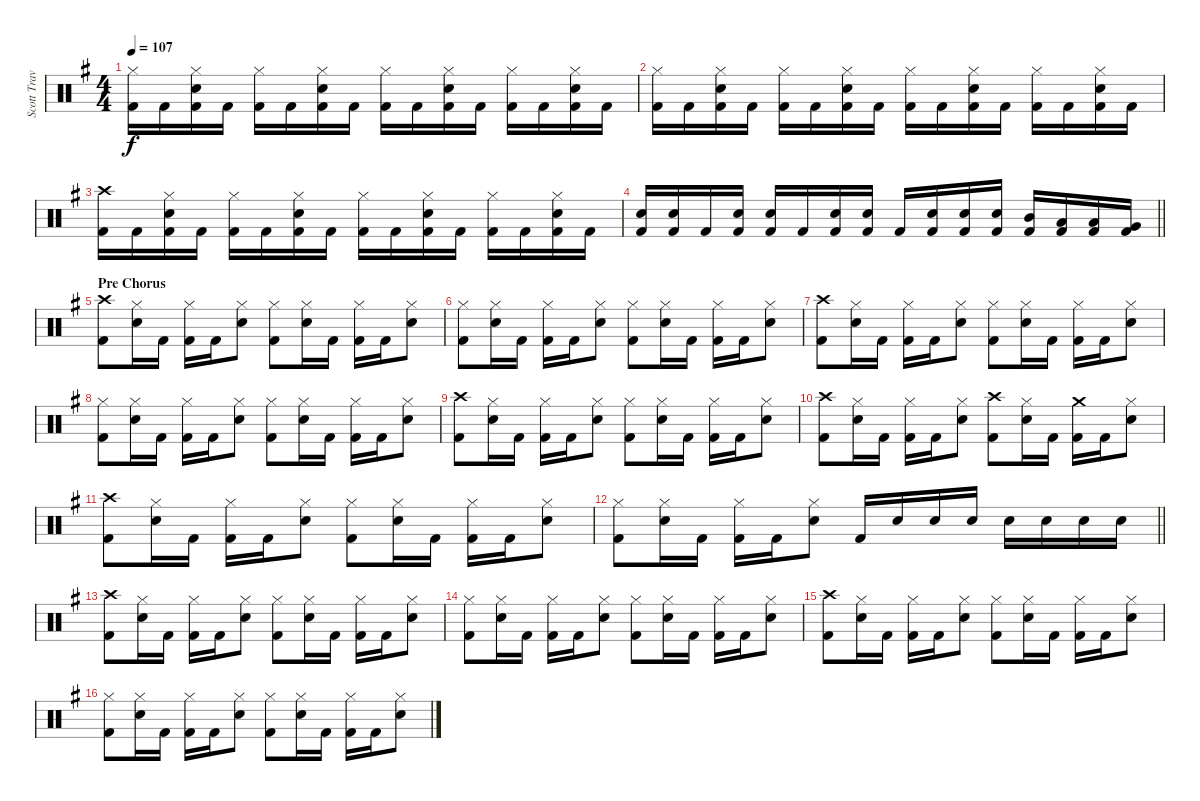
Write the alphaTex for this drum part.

\track ("Scott Travis" "Scott Trav") {instrument percussion}
\staff {score}
\articulation defaults
\ts (4 4)
\tempo 107
\clef neutral
\ks eminor
("Hi-Hat (closed)" "Kick (hit) 2").16{dy f} "Kick (hit) 2".16 ("Hi-Hat (closed)" "Snare (hit) 2" "Kick (hit) 2").16 "Kick (hit) 2".16 ("Hi-Hat (closed)" "Kick (hit) 2").16 "Kick (hit) 2".16 ("Hi-Hat (closed)" "Snare (hit) 2" "Kick (hit) 2").16 "Kick (hit) 2".16 ("Hi-Hat (closed)" "Kick (hit) 2").16 "Kick (hit) 2".16 ("Hi-Hat (closed)" "Snare (hit) 2" "Kick (hit) 2").16 "Kick (hit) 2".16 ("Hi-Hat (closed)" "Kick (hit) 2").16 "Kick (hit) 2".16 ("Hi-Hat (closed)" "Snare (hit) 2" "Kick (hit) 2").16 "Kick (hit) 2".16 |
("Hi-Hat (closed)" "Kick (hit) 2").16 "Kick (hit) 2".16 ("Hi-Hat (closed)" "Snare (hit) 2" "Kick (hit) 2").16 "Kick (hit) 2".16 ("Hi-Hat (closed)" "Kick (hit) 2").16 "Kick (hit) 2".16 ("Hi-Hat (closed)" "Snare (hit) 2" "Kick (hit) 2").16 "Kick (hit) 2".16 ("Hi-Hat (closed)" "Kick (hit) 2").16 "Kick (hit) 2".16 ("Hi-Hat (closed)" "Snare (hit) 2" "Kick (hit) 2").16 "Kick (hit) 2".16 ("Hi-Hat (closed)" "Kick (hit) 2").16 "Kick (hit) 2".16 ("Hi-Hat (closed)" "Snare (hit) 2" "Kick (hit) 2").16 "Kick (hit) 2".16 |
("Crash high (hit)" "Kick (hit) 2").16 "Kick (hit) 2".16 ("Hi-Hat (closed)" "Snare (hit) 2" "Kick (hit) 2").16 "Kick (hit) 2".16 ("Hi-Hat (closed)" "Kick (hit) 2").16 "Kick (hit) 2".16 ("Hi-Hat (closed)" "Snare (hit) 2" "Kick (hit) 2").16 "Kick (hit) 2".16 ("Hi-Hat (closed)" "Kick (hit) 2").16 "Kick (hit) 2".16 ("Hi-Hat (closed)" "Snare (hit) 2" "Kick (hit) 2").16 "Kick (hit) 2".16 ("Hi-Hat (closed)" "Kick (hit) 2").16 "Kick (hit) 2".16 ("Hi-Hat (closed)" "Snare (hit) 2" "Kick (hit) 2").16 "Kick (hit) 2".16 |
\barLineRight lightlight
("Snare (hit) 2" "Kick (hit) 2").16 ("Snare (hit) 2" "Kick (hit) 2").16 "Kick (hit) 2".16 ("Snare (hit) 2" "Kick (hit) 2").16 ("Snare (hit) 2" "Kick (hit) 2").16 "Kick (hit) 2".16 ("Snare (hit) 2" "Kick (hit) 2").16 ("Snare (hit) 2" "Kick (hit) 2").16 "Kick (hit) 2".16 ("Snare (hit) 2" "Kick (hit) 2").16 ("Snare (hit) 2" "Kick (hit) 2").16 ("Snare (hit) 2" "Kick (hit) 2").16 ("Mid Tom (hit)" "Kick (hit) 2").16 ("Low Tom (hit)" "Kick (hit) 2").16 ("Low Tom (hit)" "Kick (hit) 2").16 ("Very Low Tom (hit)" "Kick (hit) 2").16 |
\section ("" "Pre Chorus")
("Crash high (hit)" "Kick (hit) 2").8 ("Hi-Hat (closed)" "Snare (hit) 2").16 "Kick (hit) 2".16 ("Hi-Hat (closed)" "Kick (hit) 2").16 "Kick (hit) 2".16 ("Hi-Hat (closed)" "Snare (hit) 2").8 ("Hi-Hat (closed)" "Kick (hit) 2").8 ("Hi-Hat (closed)" "Snare (hit) 2").16 "Kick (hit) 2".16 ("Hi-Hat (closed)" "Kick (hit) 2").16 "Kick (hit) 2".16 ("Hi-Hat (closed)" "Snare (hit) 2").8 |
("Hi-Hat (closed)" "Kick (hit) 2").8 ("Hi-Hat (closed)" "Snare (hit) 2").16 "Kick (hit) 2".16 ("Hi-Hat (closed)" "Kick (hit) 2").16 "Kick (hit) 2".16 ("Hi-Hat (closed)" "Snare (hit) 2").8 ("Hi-Hat (closed)" "Kick (hit) 2").8 ("Hi-Hat (closed)" "Snare (hit) 2").16 "Kick (hit) 2".16 ("Hi-Hat (closed)" "Kick (hit) 2").16 "Kick (hit) 2".16 ("Hi-Hat (closed)" "Snare (hit) 2").8 |
("Crash high (hit)" "Kick (hit) 2").8 ("Hi-Hat (closed)" "Snare (hit) 2").16 "Kick (hit) 2".16 ("Hi-Hat (closed)" "Kick (hit) 2").16 "Kick (hit) 2".16 ("Hi-Hat (closed)" "Snare (hit) 2").8 ("Hi-Hat (closed)" "Kick (hit) 2").8 ("Hi-Hat (closed)" "Snare (hit) 2").16 "Kick (hit) 2".16 ("Hi-Hat (closed)" "Kick (hit) 2").16 "Kick (hit) 2".16 ("Hi-Hat (closed)" "Snare (hit) 2").8 |
("Hi-Hat (closed)" "Kick (hit) 2").8 ("Hi-Hat (closed)" "Snare (hit) 2").16 "Kick (hit) 2".16 ("Hi-Hat (closed)" "Kick (hit) 2").16 "Kick (hit) 2".16 ("Hi-Hat (closed)" "Snare (hit) 2").8 ("Hi-Hat (closed)" "Kick (hit) 2").8 ("Hi-Hat (closed)" "Snare (hit) 2").16 "Kick (hit) 2".16 ("Hi-Hat (closed)" "Kick (hit) 2").16 "Kick (hit) 2".16 ("Hi-Hat (closed)" "Snare (hit) 2").8 |
("Crash high (hit)" "Kick (hit) 2").8 ("Hi-Hat (closed)" "Snare (hit) 2").16 "Kick (hit) 2".16 ("Hi-Hat (closed)" "Kick (hit) 2").16 "Kick (hit) 2".16 ("Hi-Hat (closed)" "Snare (hit) 2").8 ("Hi-Hat (closed)" "Kick (hit) 2").8 ("Hi-Hat (closed)" "Snare (hit) 2").16 "Kick (hit) 2".16 ("Hi-Hat (closed)" "Kick (hit) 2").16 "Kick (hit) 2".16 ("Hi-Hat (closed)" "Snare (hit) 2").8 |
("Crash high (hit)" "Kick (hit) 2").8 ("Hi-Hat (closed)" "Snare (hit) 2").16 "Kick (hit) 2".16 ("Hi-Hat (closed)" "Kick (hit) 2").16 "Kick (hit) 2".16 ("Hi-Hat (closed)" "Snare (hit) 2").8 ("Crash high (hit)" "Kick (hit) 2").8 ("Hi-Hat (closed)" "Snare (hit) 2").16 "Kick (hit) 2".16 ("Crash medium (hit)" "Kick (hit) 2").16 "Kick (hit) 2".16 ("Hi-Hat (closed)" "Snare (hit) 2").8 |
("Crash high (hit)" "Kick (hit) 2").8 ("Hi-Hat (closed)" "Snare (hit) 2").16 "Kick (hit) 2".16 ("Hi-Hat (closed)" "Kick (hit) 2").16 "Kick (hit) 2".16 ("Hi-Hat (closed)" "Snare (hit) 2").8 ("Hi-Hat (closed)" "Kick (hit) 2").8 ("Hi-Hat (closed)" "Snare (hit) 2").16 "Kick (hit) 2".16 ("Hi-Hat (closed)" "Kick (hit) 2").16 "Kick (hit) 2".16 ("Hi-Hat (closed)" "Snare (hit) 2").8 |
\barLineRight lightlight
("Hi-Hat (closed)" "Kick (hit) 2").8 ("Hi-Hat (closed)" "Snare (hit) 2").16 "Kick (hit) 2".16 ("Hi-Hat (closed)" "Kick (hit) 2").16 "Kick (hit) 2".16 ("Hi-Hat (closed)" "Snare (hit) 2").8 "Kick (hit) 2".16 "Snare (hit) 2".16 "Snare (hit) 2".16 "Snare (hit) 2".16 "Snare (hit) 2".16 "Snare (hit) 2".16 "Snare (hit) 2".16 "Snare (hit) 2".16 |
("Crash high (hit)" "Kick (hit) 2").8 ("Hi-Hat (closed)" "Snare (hit) 2").16 "Kick (hit) 2".16 ("Hi-Hat (closed)" "Kick (hit) 2").16 "Kick (hit) 2".16 ("Hi-Hat (closed)" "Snare (hit) 2").8 ("Hi-Hat (closed)" "Kick (hit) 2").8 ("Hi-Hat (closed)" "Snare (hit) 2").16 "Kick (hit) 2".16 ("Hi-Hat (closed)" "Kick (hit) 2").16 "Kick (hit) 2".16 ("Hi-Hat (closed)" "Snare (hit) 2").8 |
("Hi-Hat (closed)" "Kick (hit) 2").8 ("Hi-Hat (closed)" "Snare (hit) 2").16 "Kick (hit) 2".16 ("Hi-Hat (closed)" "Kick (hit) 2").16 "Kick (hit) 2".16 ("Hi-Hat (closed)" "Snare (hit) 2").8 ("Hi-Hat (closed)" "Kick (hit) 2").8 ("Hi-Hat (closed)" "Snare (hit) 2").16 "Kick (hit) 2".16 ("Hi-Hat (closed)" "Kick (hit) 2").16 "Kick (hit) 2".16 ("Hi-Hat (closed)" "Snare (hit) 2").8 |
("Crash high (hit)" "Kick (hit) 2").8 ("Hi-Hat (closed)" "Snare (hit) 2").16 "Kick (hit) 2".16 ("Hi-Hat (closed)" "Kick (hit) 2").16 "Kick (hit) 2".16 ("Hi-Hat (closed)" "Snare (hit) 2").8 ("Hi-Hat (closed)" "Kick (hit) 2").8 ("Hi-Hat (closed)" "Snare (hit) 2").16 "Kick (hit) 2".16 ("Hi-Hat (closed)" "Kick (hit) 2").16 "Kick (hit) 2".16 ("Hi-Hat (closed)" "Snare (hit) 2").8 |
("Hi-Hat (closed)" "Kick (hit) 2").8 ("Hi-Hat (closed)" "Snare (hit) 2").16 "Kick (hit) 2".16 ("Hi-Hat (closed)" "Kick (hit) 2").16 "Kick (hit) 2".16 ("Hi-Hat (closed)" "Snare (hit) 2").8 ("Hi-Hat (closed)" "Kick (hit) 2").8 ("Hi-Hat (closed)" "Snare (hit) 2").16 "Kick (hit) 2".16 ("Hi-Hat (closed)" "Kick (hit) 2").16 "Kick (hit) 2".16 ("Hi-Hat (closed)" "Snare (hit) 2").8
